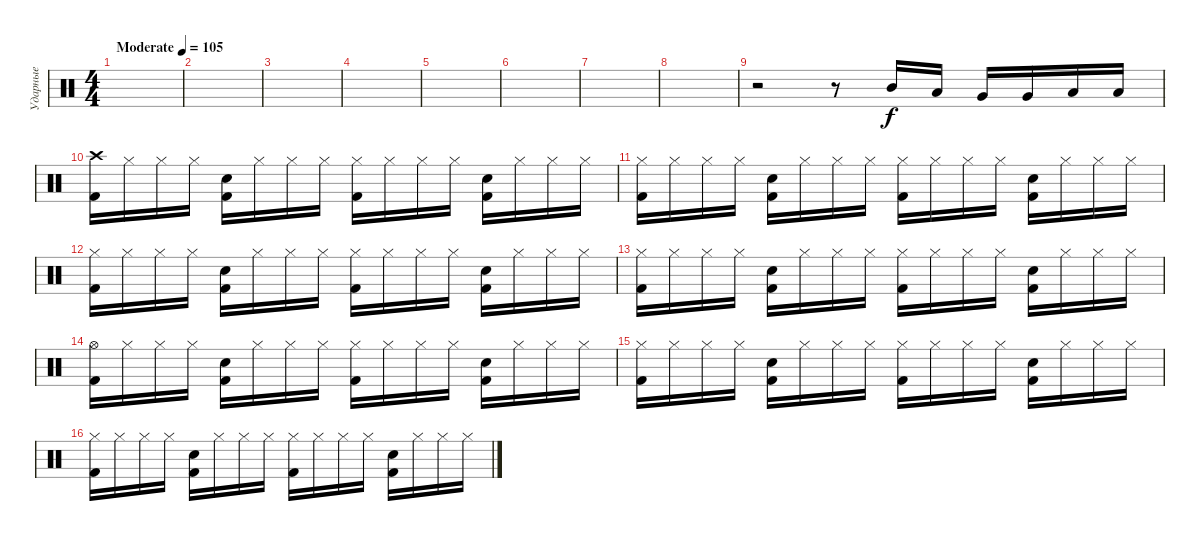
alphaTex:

\track ("Ударные" "Ударные") {instrument percussion}
\staff {score}
\articulation defaults
\ts (4 4)
\tempo (105 "Moderate")
\clef neutral
\ks c
|
|
|
|
|
|
|
|
r.2 r.8 "Mid Tom (hit)".16 "Low Tom (hit)".16 "Very Low Tom (hit)".16 "Very Low Tom (hit)".16 "Low Floor Tom (hit)".16 "Low Floor Tom (hit)".16 |
("Crash high (hit)" "Kick (hit) 2").16 "Hi-Hat (closed)".16 "Hi-Hat (closed)".16 "Hi-Hat (closed)".16 ("Kick (hit) 2" "Electric Snare (hit)").16 "Hi-Hat (closed)".16 "Hi-Hat (closed)".16 "Hi-Hat (closed)".16 ("Hi-Hat (closed)" "Kick (hit) 2").16 "Hi-Hat (closed)".16 "Hi-Hat (closed)".16 "Hi-Hat (closed)".16 ("Kick (hit) 2" "Electric Snare (hit)").16 "Hi-Hat (closed)".16 "Hi-Hat (closed)".16 "Hi-Hat (closed)".16 |
("Hi-Hat (closed)" "Kick (hit) 2").16 "Hi-Hat (closed)".16 "Hi-Hat (closed)".16 "Hi-Hat (closed)".16 ("Kick (hit) 2" "Electric Snare (hit)").16 "Hi-Hat (closed)".16 "Hi-Hat (closed)".16 "Hi-Hat (closed)".16 ("Hi-Hat (closed)" "Kick (hit) 2").16 "Hi-Hat (closed)".16 "Hi-Hat (closed)".16 "Hi-Hat (closed)".16 ("Kick (hit) 2" "Electric Snare (hit)").16 "Hi-Hat (closed)".16 "Hi-Hat (closed)".16 "Hi-Hat (closed)".16 |
("Hi-Hat (closed)" "Kick (hit) 2").16 "Hi-Hat (closed)".16 "Hi-Hat (closed)".16 "Hi-Hat (closed)".16 ("Kick (hit) 2" "Electric Snare (hit)").16 "Hi-Hat (closed)".16 "Hi-Hat (closed)".16 "Hi-Hat (closed)".16 ("Hi-Hat (closed)" "Kick (hit) 2").16 "Hi-Hat (closed)".16 "Hi-Hat (closed)".16 "Hi-Hat (closed)".16 ("Kick (hit) 2" "Electric Snare (hit)").16 "Hi-Hat (closed)".16 "Hi-Hat (closed)".16 "Hi-Hat (closed)".16 |
("Hi-Hat (closed)" "Kick (hit) 2").16 "Hi-Hat (closed)".16 "Hi-Hat (closed)".16 "Hi-Hat (closed)".16 ("Kick (hit) 2" "Electric Snare (hit)").16 "Hi-Hat (closed)".16 "Hi-Hat (closed)".16 "Hi-Hat (closed)".16 ("Hi-Hat (closed)" "Kick (hit) 2").16 "Hi-Hat (closed)".16 "Hi-Hat (closed)".16 "Hi-Hat (closed)".16 ("Kick (hit) 2" "Electric Snare (hit)").16 "Hi-Hat (closed)".16 "Hi-Hat (closed)".16 "Hi-Hat (closed)".16 |
("Hi-Hat (open)" "Kick (hit) 2").16 "Hi-Hat (closed)".16 "Hi-Hat (closed)".16 "Hi-Hat (closed)".16 ("Kick (hit) 2" "Electric Snare (hit)").16 "Hi-Hat (closed)".16 "Hi-Hat (closed)".16 "Hi-Hat (closed)".16 ("Hi-Hat (closed)" "Kick (hit) 2").16 "Hi-Hat (closed)".16 "Hi-Hat (closed)".16 "Hi-Hat (closed)".16 ("Kick (hit) 2" "Electric Snare (hit)").16 "Hi-Hat (closed)".16 "Hi-Hat (closed)".16 "Hi-Hat (closed)".16 |
("Hi-Hat (closed)" "Kick (hit) 2").16 "Hi-Hat (closed)".16 "Hi-Hat (closed)".16 "Hi-Hat (closed)".16 ("Kick (hit) 2" "Electric Snare (hit)").16 "Hi-Hat (closed)".16 "Hi-Hat (closed)".16 "Hi-Hat (closed)".16 ("Hi-Hat (closed)" "Kick (hit) 2").16 "Hi-Hat (closed)".16 "Hi-Hat (closed)".16 "Hi-Hat (closed)".16 ("Kick (hit) 2" "Electric Snare (hit)").16 "Hi-Hat (closed)".16 "Hi-Hat (closed)".16 "Hi-Hat (closed)".16 |
("Hi-Hat (closed)" "Kick (hit) 2").16 "Hi-Hat (closed)".16 "Hi-Hat (closed)".16 "Hi-Hat (closed)".16 ("Kick (hit) 2" "Electric Snare (hit)").16 "Hi-Hat (closed)".16 "Hi-Hat (closed)".16 "Hi-Hat (closed)".16 ("Hi-Hat (closed)" "Kick (hit) 2").16 "Hi-Hat (closed)".16 "Hi-Hat (closed)".16 "Hi-Hat (closed)".16 ("Kick (hit) 2" "Electric Snare (hit)").16 "Hi-Hat (closed)".16 "Hi-Hat (closed)".16 "Hi-Hat (closed)".16
